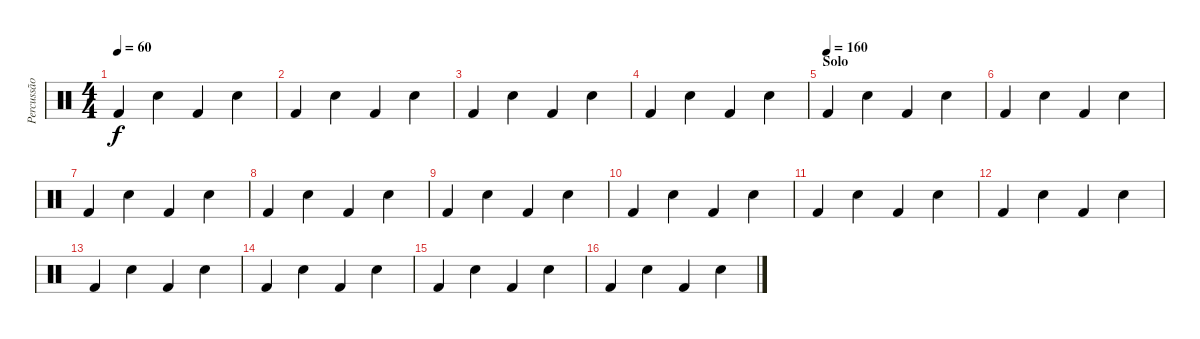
\track ("Percussão" "Percussão") {instrument percussion}
\staff {score}
\articulation defaults
\ts (4 4)
\tempo 60
\clef neutral
\ks c "Kick (hit) 2".4{dy f} "Snare (hit) 2".4 "Kick (hit) 2".4 "Snare (hit) 2".4
|
"Kick (hit) 2".4 "Snare (hit) 2".4 "Kick (hit) 2".4 "Snare (hit) 2".4 |
"Kick (hit) 2".4 "Snare (hit) 2".4 "Kick (hit) 2".4 "Snare (hit) 2".4 |
"Kick (hit) 2".4 "Snare (hit) 2".4 "Kick (hit) 2".4 "Snare (hit) 2".4 |
\section ("" "Solo")
\tempo (160)
"Kick (hit) 2".4 "Snare (hit) 2".4 "Kick (hit) 2".4 "Snare (hit) 2".4 |
"Kick (hit) 2".4 "Snare (hit) 2".4 "Kick (hit) 2".4 "Snare (hit) 2".4 |
"Kick (hit) 2".4 "Snare (hit) 2".4 "Kick (hit) 2".4 "Snare (hit) 2".4 |
"Kick (hit) 2".4 "Snare (hit) 2".4 "Kick (hit) 2".4 "Snare (hit) 2".4 |
"Kick (hit) 2".4 "Snare (hit) 2".4 "Kick (hit) 2".4 "Snare (hit) 2".4 |
"Kick (hit) 2".4 "Snare (hit) 2".4 "Kick (hit) 2".4 "Snare (hit) 2".4 |
"Kick (hit) 2".4 "Snare (hit) 2".4 "Kick (hit) 2".4 "Snare (hit) 2".4 |
"Kick (hit) 2".4 "Snare (hit) 2".4 "Kick (hit) 2".4 "Snare (hit) 2".4 |
"Kick (hit) 2".4 "Snare (hit) 2".4 "Kick (hit) 2".4 "Snare (hit) 2".4 |
"Kick (hit) 2".4 "Snare (hit) 2".4 "Kick (hit) 2".4 "Snare (hit) 2".4 |
"Kick (hit) 2".4 "Snare (hit) 2".4 "Kick (hit) 2".4 "Snare (hit) 2".4 |
"Kick (hit) 2".4 "Snare (hit) 2".4 "Kick (hit) 2".4 "Snare (hit) 2".4
